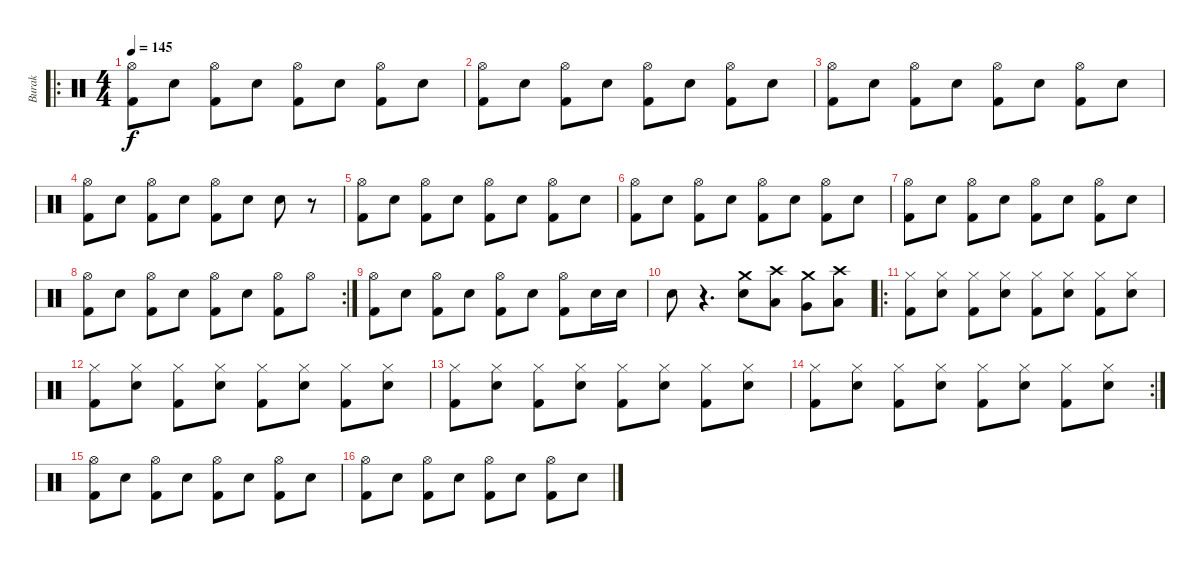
\track ("Burak" "Burak") {instrument percussion}
\staff {score}
\articulation defaults
\ro
\ts (4 4)
\tempo 145
\clef neutral
\ks c
("Kick (hit) 2" "Hi-Hat (open)").8{dy f} "Electric Snare (hit)".8 ("Kick (hit) 2" "Hi-Hat (open)").8 "Electric Snare (hit)".8 ("Kick (hit) 2" "Hi-Hat (open)").8 "Electric Snare (hit)".8 ("Kick (hit) 2" "Hi-Hat (open)").8 "Electric Snare (hit)".8 |
("Kick (hit) 2" "Hi-Hat (open)").8 "Electric Snare (hit)".8 ("Kick (hit) 2" "Hi-Hat (open)").8 "Electric Snare (hit)".8 ("Kick (hit) 2" "Hi-Hat (open)").8 "Electric Snare (hit)".8 ("Kick (hit) 2" "Hi-Hat (open)").8 "Electric Snare (hit)".8 |
("Kick (hit) 2" "Hi-Hat (open)").8 "Electric Snare (hit)".8 ("Kick (hit) 2" "Hi-Hat (open)").8 "Electric Snare (hit)".8 ("Kick (hit) 2" "Hi-Hat (open)").8 "Electric Snare (hit)".8 ("Kick (hit) 2" "Hi-Hat (open)").8 "Electric Snare (hit)".8 |
("Kick (hit) 2" "Hi-Hat (open)").8 "Electric Snare (hit)".8 ("Kick (hit) 2" "Hi-Hat (open)").8 "Electric Snare (hit)".8 ("Kick (hit) 2" "Hi-Hat (open)").8 "Electric Snare (hit)".8 "Electric Snare (hit)".8 r.8 |
("Kick (hit) 2" "Hi-Hat (open)").8 "Electric Snare (hit)".8 ("Kick (hit) 2" "Hi-Hat (open)").8 "Electric Snare (hit)".8 ("Kick (hit) 2" "Hi-Hat (open)").8 "Electric Snare (hit)".8 ("Kick (hit) 2" "Hi-Hat (open)").8 "Electric Snare (hit)".8 |
("Kick (hit) 2" "Hi-Hat (open)").8 "Electric Snare (hit)".8 ("Kick (hit) 2" "Hi-Hat (open)").8 "Electric Snare (hit)".8 ("Kick (hit) 2" "Hi-Hat (open)").8 "Electric Snare (hit)".8 ("Kick (hit) 2" "Hi-Hat (open)").8 "Electric Snare (hit)".8 |
("Kick (hit) 2" "Hi-Hat (open)").8 "Electric Snare (hit)".8 ("Kick (hit) 2" "Hi-Hat (open)").8 "Electric Snare (hit)".8 ("Kick (hit) 2" "Hi-Hat (open)").8 "Electric Snare (hit)".8 ("Kick (hit) 2" "Hi-Hat (open)").8 "Electric Snare (hit)".8 |
\rc 2
("Kick (hit) 2" "Hi-Hat (open)").8 "Electric Snare (hit)".8 ("Kick (hit) 2" "Hi-Hat (open)").8 "Electric Snare (hit)".8 ("Kick (hit) 2" "Hi-Hat (open)").8 "Electric Snare (hit)".8 ("Kick (hit) 2" "Hi-Hat (open)").8 "Hi-Hat (open)".8 |
("Kick (hit) 2" "Hi-Hat (open)").8 "Electric Snare (hit)".8 ("Kick (hit) 2" "Hi-Hat (open)").8 "Electric Snare (hit)".8 ("Kick (hit) 2" "Hi-Hat (open)").8 "Electric Snare (hit)".8 ("Kick (hit) 2" "Hi-Hat (open)").8 "Electric Snare (hit)".16 "Electric Snare (hit)".16 |
"Electric Snare (hit)".8 r.4{d} ("Crash medium (hit)" "Electric Snare (hit)").8 ("Crash high (hit)" "Low Floor Tom (hit)").8 ("Crash medium (hit)" "Very Low Tom (hit)").8 ("Crash high (hit)" "Low Tom (hit)").8 |
\ro
("Hi-Hat (closed)" "Kick (hit) 2").8 ("Hi-Hat (closed)" "Electric Snare (hit)").8 ("Hi-Hat (closed)" "Kick (hit) 2").8 ("Hi-Hat (closed)" "Electric Snare (hit)").8 ("Hi-Hat (closed)" "Kick (hit) 2").8 ("Hi-Hat (closed)" "Electric Snare (hit)").8 ("Hi-Hat (closed)" "Kick (hit) 2").8 ("Hi-Hat (closed)" "Electric Snare (hit)").8 |
("Hi-Hat (closed)" "Kick (hit) 2").8 ("Hi-Hat (closed)" "Electric Snare (hit)").8 ("Hi-Hat (closed)" "Kick (hit) 2").8 ("Hi-Hat (closed)" "Electric Snare (hit)").8 ("Hi-Hat (closed)" "Kick (hit) 2").8 ("Hi-Hat (closed)" "Electric Snare (hit)").8 ("Hi-Hat (closed)" "Kick (hit) 2").8 ("Hi-Hat (closed)" "Electric Snare (hit)").8 |
("Hi-Hat (closed)" "Kick (hit) 2").8 ("Hi-Hat (closed)" "Electric Snare (hit)").8 ("Hi-Hat (closed)" "Kick (hit) 2").8 ("Hi-Hat (closed)" "Electric Snare (hit)").8 ("Hi-Hat (closed)" "Kick (hit) 2").8 ("Hi-Hat (closed)" "Electric Snare (hit)").8 ("Hi-Hat (closed)" "Kick (hit) 2").8 ("Hi-Hat (closed)" "Electric Snare (hit)").8 |
\rc 2
("Hi-Hat (closed)" "Kick (hit) 2").8 ("Hi-Hat (closed)" "Electric Snare (hit)").8 ("Hi-Hat (closed)" "Kick (hit) 2").8 ("Hi-Hat (closed)" "Electric Snare (hit)").8 ("Hi-Hat (closed)" "Kick (hit) 2").8 ("Hi-Hat (closed)" "Electric Snare (hit)").8 ("Hi-Hat (closed)" "Kick (hit) 2").8 ("Hi-Hat (closed)" "Electric Snare (hit)").8 |
("Hi-Hat (open)" "Kick (hit) 2").8 "Electric Snare (hit)".8 ("Hi-Hat (open)" "Kick (hit) 2").8 "Electric Snare (hit)".8 ("Hi-Hat (open)" "Kick (hit) 2").8 "Electric Snare (hit)".8 ("Hi-Hat (open)" "Kick (hit) 2").8 "Electric Snare (hit)".8 |
("Hi-Hat (open)" "Kick (hit) 2").8 "Electric Snare (hit)".8 ("Hi-Hat (open)" "Kick (hit) 2").8 "Electric Snare (hit)".8 ("Hi-Hat (open)" "Kick (hit) 2").8 "Electric Snare (hit)".8 ("Hi-Hat (open)" "Kick (hit) 2").8 "Electric Snare (hit)".8
